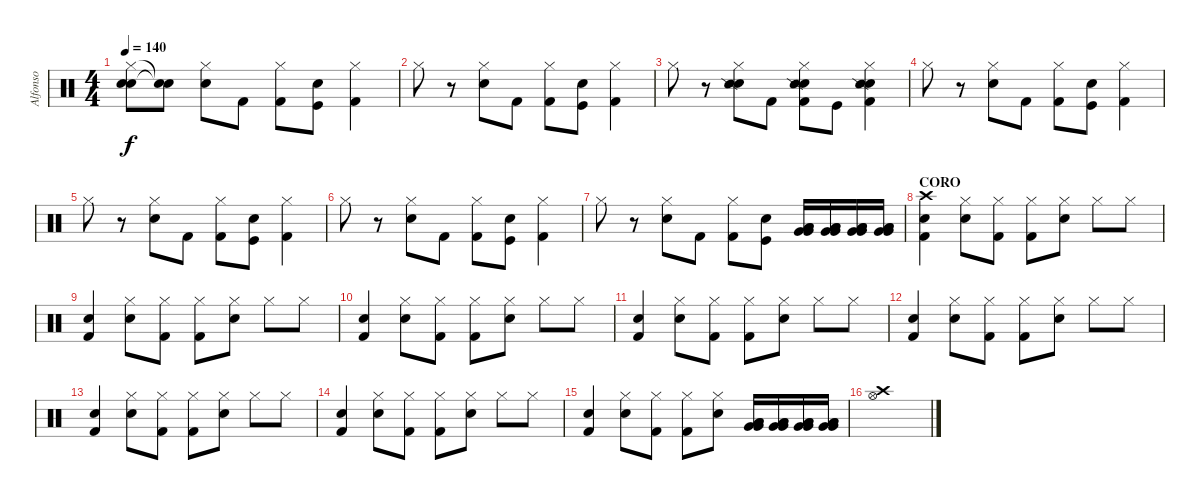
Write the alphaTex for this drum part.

\track ("Alfonso" "Alfonso") {instrument percussion}
\staff {score}
\articulation defaults
\ts (4 4)
\tempo 140
\clef neutral
\ks c
("Hi-Hat (closed)" "Snare (hit)"{t} "Snare (hit)"{t}).8{dy f} ("Snare (hit)"{t} "Snare (hit)"{t}).8 ("Hi-Hat (closed)" "Electric Snare (hit)").8 "Kick (hit) 2".8 ("Hi-Hat (closed)" "Kick (hit) 2").8 ("Electric Snare (hit)" "Kick (hit)").8 ("Hi-Hat (closed)" "Kick (hit) 2").4 |
"Hi-Hat (closed)".8 r.8 ("Hi-Hat (closed)" "Electric Snare (hit)").8 "Kick (hit) 2".8 ("Hi-Hat (closed)" "Kick (hit) 2").8 ("Electric Snare (hit)" "Kick (hit)").8 ("Hi-Hat (closed)" "Kick (hit) 2").4 |
"Hi-Hat (closed)".8 r.8 ("Hi-Hat (closed)" "Electric Snare (hit)" "Snare (side stick) 2").8 "Kick (hit) 2".8 ("Hi-Hat (closed)" "Electric Snare (hit)" "Kick (hit) 2" "Snare (side stick) 2").8 "Kick (hit)".8 ("Hi-Hat (closed)" "Electric Snare (hit)" "Kick (hit) 2" "Snare (side stick) 2").4 |
"Hi-Hat (closed)".8 r.8 ("Hi-Hat (closed)" "Electric Snare (hit)").8 "Kick (hit) 2".8 ("Hi-Hat (closed)" "Kick (hit) 2").8 ("Electric Snare (hit)" "Kick (hit)").8 ("Hi-Hat (closed)" "Kick (hit) 2").4 |
"Hi-Hat (closed)".8 r.8 ("Hi-Hat (closed)" "Electric Snare (hit)").8 "Kick (hit) 2".8 ("Hi-Hat (closed)" "Kick (hit) 2").8 ("Electric Snare (hit)" "Kick (hit)").8 ("Hi-Hat (closed)" "Kick (hit) 2").4 |
"Hi-Hat (closed)".8 r.8 ("Hi-Hat (closed)" "Electric Snare (hit)").8 "Kick (hit) 2".8 ("Hi-Hat (closed)" "Kick (hit) 2").8 ("Electric Snare (hit)" "Kick (hit)").8 ("Hi-Hat (closed)" "Kick (hit) 2").4 |
"Hi-Hat (closed)".8 r.8 ("Hi-Hat (closed)" "Electric Snare (hit)").8 "Kick (hit) 2".8 ("Hi-Hat (closed)" "Kick (hit) 2").8 ("Electric Snare (hit)" "Kick (hit)").8 ("Low Floor Tom (hit)" "Very Low Tom (hit)" "Very Low Tom (hit)" "Low Floor Tom (hit)").16 ("Low Floor Tom (hit)" "Very Low Tom (hit)" "Very Low Tom (hit)" "Low Floor Tom (hit)").16 ("Low Floor Tom (hit)" "Very Low Tom (hit)" "Very Low Tom (hit)" "Low Floor Tom (hit)").16 ("Low Floor Tom (hit)" "Very Low Tom (hit)" "Very Low Tom (hit)" "Low Floor Tom (hit)").16 |
\section ("" "CORO")
("Kick (hit) 2" "Crash high (hit)" "Electric Snare (hit)").4 ("Hi-Hat (closed)" "Electric Snare (hit)").8 ("Hi-Hat (closed)" "Kick (hit) 2").8 ("Hi-Hat (closed)" "Kick (hit) 2").8 ("Hi-Hat (closed)" "Electric Snare (hit)").8 "Hi-Hat (closed)".8 "Hi-Hat (closed)".8 |
("Kick (hit) 2" "Electric Snare (hit)").4 ("Hi-Hat (closed)" "Electric Snare (hit)").8 ("Hi-Hat (closed)" "Kick (hit) 2").8 ("Hi-Hat (closed)" "Kick (hit) 2").8 ("Hi-Hat (closed)" "Electric Snare (hit)").8 "Hi-Hat (closed)".8 "Hi-Hat (closed)".8 |
("Kick (hit) 2" "Electric Snare (hit)").4 ("Hi-Hat (closed)" "Electric Snare (hit)").8 ("Hi-Hat (closed)" "Kick (hit) 2").8 ("Hi-Hat (closed)" "Kick (hit) 2").8 ("Hi-Hat (closed)" "Electric Snare (hit)").8 "Hi-Hat (closed)".8 "Hi-Hat (closed)".8 |
("Kick (hit) 2" "Electric Snare (hit)").4 ("Hi-Hat (closed)" "Electric Snare (hit)").8 ("Hi-Hat (closed)" "Kick (hit) 2").8 ("Hi-Hat (closed)" "Kick (hit) 2").8 ("Hi-Hat (closed)" "Electric Snare (hit)").8 "Hi-Hat (closed)".8 "Hi-Hat (closed)".8 |
("Kick (hit) 2" "Electric Snare (hit)").4 ("Hi-Hat (closed)" "Electric Snare (hit)").8 ("Hi-Hat (closed)" "Kick (hit) 2").8 ("Hi-Hat (closed)" "Kick (hit) 2").8 ("Hi-Hat (closed)" "Electric Snare (hit)").8 "Hi-Hat (closed)".8 "Hi-Hat (closed)".8 |
("Kick (hit) 2" "Electric Snare (hit)").4 ("Hi-Hat (closed)" "Electric Snare (hit)").8 ("Hi-Hat (closed)" "Kick (hit) 2").8 ("Hi-Hat (closed)" "Kick (hit) 2").8 ("Hi-Hat (closed)" "Electric Snare (hit)").8 "Hi-Hat (closed)".8 "Hi-Hat (closed)".8 |
("Kick (hit) 2" "Electric Snare (hit)").4 ("Hi-Hat (closed)" "Electric Snare (hit)").8 ("Hi-Hat (closed)" "Kick (hit) 2").8 ("Hi-Hat (closed)" "Kick (hit) 2").8 ("Hi-Hat (closed)" "Electric Snare (hit)").8 "Hi-Hat (closed)".8 "Hi-Hat (closed)".8 |
("Kick (hit) 2" "Electric Snare (hit)").4 ("Hi-Hat (closed)" "Electric Snare (hit)").8 ("Hi-Hat (closed)" "Kick (hit) 2").8 ("Hi-Hat (closed)" "Kick (hit) 2").8 ("Hi-Hat (closed)" "Electric Snare (hit)").8 ("Low Floor Tom (hit)" "Very Low Tom (hit)" "Very Low Tom (hit)" "Low Floor Tom (hit)").16 ("Low Floor Tom (hit)" "Very Low Tom (hit)" "Very Low Tom (hit)" "Low Floor Tom (hit)").16 ("Low Floor Tom (hit)" "Very Low Tom (hit)" "Very Low Tom (hit)" "Low Floor Tom (hit)").16 ("Low Floor Tom (hit)" "Very Low Tom (hit)" "Very Low Tom (hit)" "Low Floor Tom (hit)").16 |
("Hi-Hat (open)" "Crash high (hit)").1
